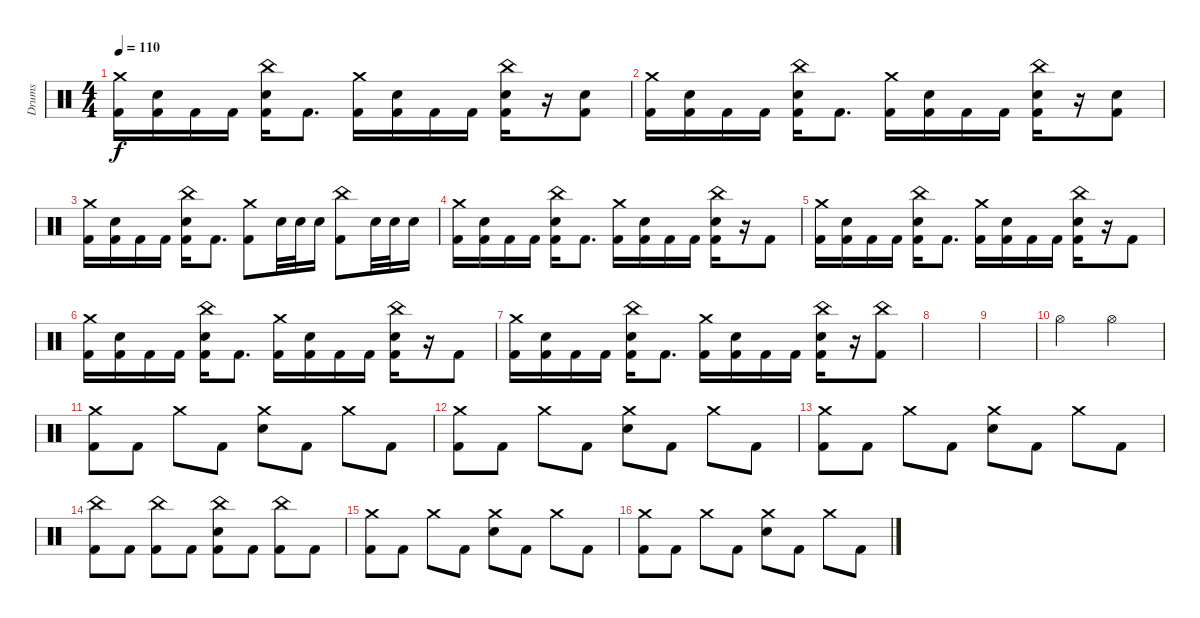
\track ("Drums" "Drums") {instrument percussion}
\staff {score}
\articulation defaults
\ts (4 4)
\tempo 110
\clef neutral
\ks c
("Crash medium (hit)" "Kick (hit) 2").16{dy f} ("Snare (hit) 2" "Kick (hit) 2").16 "Kick (hit) 2".16 "Kick (hit) 2".16 ("China (hit)" "Snare (hit) 2" "Kick (hit) 2").16 "Kick (hit) 2".8{d} ("Crash medium (hit)" "Kick (hit) 2").16 ("Snare (hit) 2" "Kick (hit) 2").16 "Kick (hit) 2".16 "Kick (hit) 2".16 ("China (hit)" "Snare (hit) 2" "Kick (hit) 2").16 r.16 ("Snare (hit) 2" "Kick (hit) 2").8 |
("Crash medium (hit)" "Kick (hit) 2").16 ("Snare (hit) 2" "Kick (hit) 2").16 "Kick (hit) 2".16 "Kick (hit) 2".16 ("China (hit)" "Snare (hit) 2" "Kick (hit) 2").16 "Kick (hit) 2".8{d} ("Crash medium (hit)" "Kick (hit) 2").16 ("Snare (hit) 2" "Kick (hit) 2").16 "Kick (hit) 2".16 "Kick (hit) 2".16 ("China (hit)" "Snare (hit) 2" "Kick (hit) 2").16 r.16 ("Snare (hit) 2" "Kick (hit) 2").8 |
("Crash medium (hit)" "Kick (hit) 2").16 ("Snare (hit) 2" "Kick (hit) 2").16 "Kick (hit) 2".16 "Kick (hit) 2".16 ("China (hit)" "Snare (hit) 2" "Kick (hit) 2").16 "Kick (hit) 2".8{d} ("Crash medium (hit)" "Kick (hit) 2").8 "Snare (hit) 2".32 "Snare (hit) 2".32 "Snare (hit) 2".16 ("China (hit)" "Kick (hit) 2").8 "Snare (hit) 2".32 "Snare (hit) 2".32 "Snare (hit) 2".16 |
("Crash medium (hit)" "Kick (hit) 2").16 ("Snare (hit) 2" "Kick (hit) 2").16 "Kick (hit) 2".16 "Kick (hit) 2".16 ("China (hit)" "Snare (hit) 2" "Kick (hit) 2").16 "Kick (hit) 2".8{d} ("Crash medium (hit)" "Kick (hit) 2").16 ("Snare (hit) 2" "Kick (hit) 2").16 "Kick (hit) 2".16 "Kick (hit) 2".16 ("China (hit)" "Snare (hit) 2" "Kick (hit) 2").16 r.16 "Kick (hit) 2".8 |
("Crash medium (hit)" "Kick (hit) 2").16 ("Snare (hit) 2" "Kick (hit) 2").16 "Kick (hit) 2".16 "Kick (hit) 2".16 ("China (hit)" "Snare (hit) 2" "Kick (hit) 2").16 "Kick (hit) 2".8{d} ("Crash medium (hit)" "Kick (hit) 2").16 ("Snare (hit) 2" "Kick (hit) 2").16 "Kick (hit) 2".16 "Kick (hit) 2".16 ("China (hit)" "Snare (hit) 2" "Kick (hit) 2").16 r.16 "Kick (hit) 2".8 |
("Crash medium (hit)" "Kick (hit) 2").16 ("Snare (hit) 2" "Kick (hit) 2").16 "Kick (hit) 2".16 "Kick (hit) 2".16 ("China (hit)" "Snare (hit) 2" "Kick (hit) 2").16 "Kick (hit) 2".8{d} ("Crash medium (hit)" "Kick (hit) 2").16 ("Snare (hit) 2" "Kick (hit) 2").16 "Kick (hit) 2".16 "Kick (hit) 2".16 ("China (hit)" "Snare (hit) 2" "Kick (hit) 2").16 r.16 "Kick (hit) 2".8 |
("Crash medium (hit)" "Kick (hit) 2").16 ("Snare (hit) 2" "Kick (hit) 2").16 "Kick (hit) 2".16 "Kick (hit) 2".16 ("China (hit)" "Snare (hit) 2" "Kick (hit) 2").16 "Kick (hit) 2".8{d} ("Crash medium (hit)" "Kick (hit) 2").16 ("Snare (hit) 2" "Kick (hit) 2").16 "Kick (hit) 2".16 "Kick (hit) 2".16 ("China (hit)" "Snare (hit) 2" "Kick (hit) 2").16 r.16 ("China (hit)" "Kick (hit) 2").8 |
|
|
"Hi-Hat (open)".2 "Hi-Hat (open)".2 |
("Crash medium (hit)" "Kick (hit) 2").8 "Kick (hit) 2".8 "Crash medium (hit)".8 "Kick (hit) 2".8 ("Crash medium (hit)" "Snare (hit) 2").8 "Kick (hit) 2".8 "Crash medium (hit)".8 "Kick (hit) 2".8 |
("Crash medium (hit)" "Kick (hit) 2").8 "Kick (hit) 2".8 "Crash medium (hit)".8 "Kick (hit) 2".8 ("Crash medium (hit)" "Snare (hit) 2").8 "Kick (hit) 2".8 "Crash medium (hit)".8 "Kick (hit) 2".8 |
("Crash medium (hit)" "Kick (hit) 2").8 "Kick (hit) 2".8 "Crash medium (hit)".8 "Kick (hit) 2".8 ("Crash medium (hit)" "Snare (hit) 2").8 "Kick (hit) 2".8 "Crash medium (hit)".8 "Kick (hit) 2".8 |
("China (hit)" "Kick (hit) 2").8 "Kick (hit) 2".8 ("China (hit)" "Kick (hit) 2").8 "Kick (hit) 2".8 ("China (hit)" "Snare (hit) 2" "Kick (hit) 2").8 "Kick (hit) 2".8 ("China (hit)" "Kick (hit) 2").8 "Kick (hit) 2".8 |
("Crash medium (hit)" "Kick (hit) 2").8 "Kick (hit) 2".8 "Crash medium (hit)".8 "Kick (hit) 2".8 ("Crash medium (hit)" "Snare (hit) 2").8 "Kick (hit) 2".8 "Crash medium (hit)".8 "Kick (hit) 2".8 |
("Crash medium (hit)" "Kick (hit) 2").8 "Kick (hit) 2".8 "Crash medium (hit)".8 "Kick (hit) 2".8 ("Crash medium (hit)" "Snare (hit) 2").8 "Kick (hit) 2".8 "Crash medium (hit)".8 "Kick (hit) 2".8
